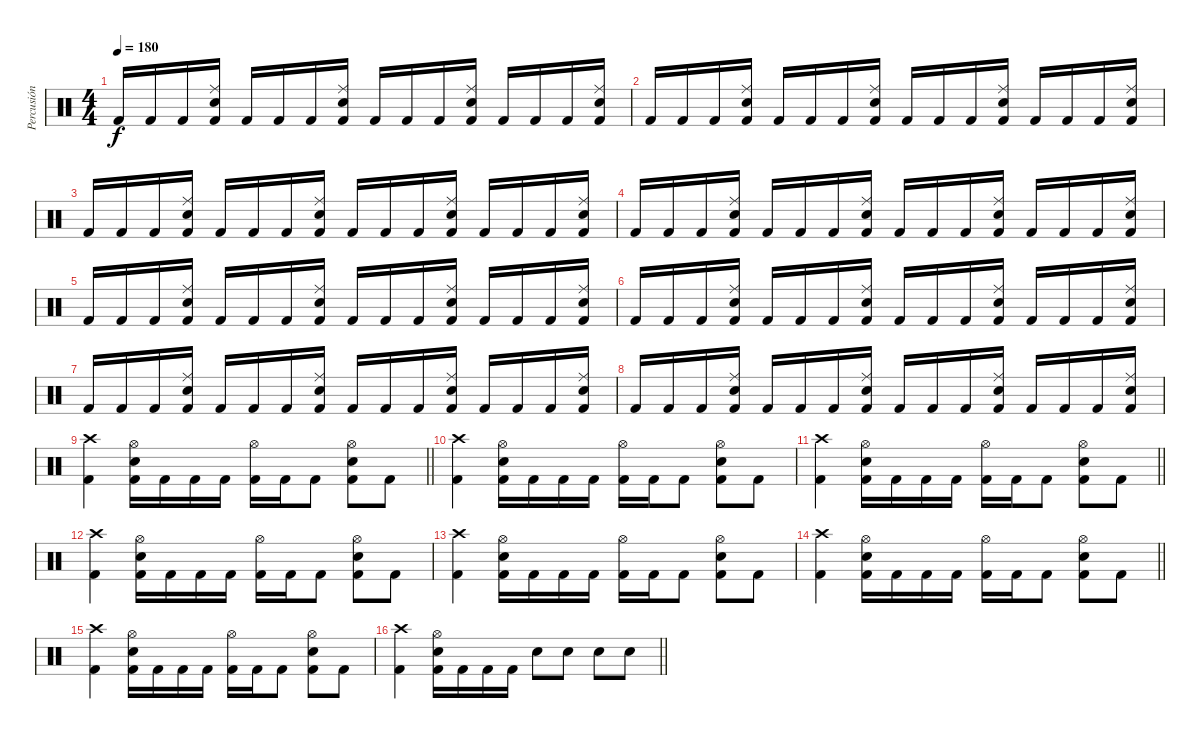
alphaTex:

\track ("Percusión" "Percusión") {instrument percussion}
\staff {score}
\articulation defaults
\ts (4 4)
\tempo 180
\clef neutral
\ks c "Kick (hit) 2".16{dy f} "Kick (hit) 2".16 "Kick (hit) 2".16
("Ride (middle)" "Snare (hit) 2" "Kick (hit) 2").16 "Kick (hit) 2".16 "Kick (hit) 2".16 "Kick (hit) 2".16 ("Ride (middle)" "Snare (hit) 2" "Kick (hit) 2").16 "Kick (hit) 2".16 "Kick (hit) 2".16 "Kick (hit) 2".16 ("Ride (middle)" "Snare (hit) 2" "Kick (hit) 2").16 "Kick (hit) 2".16 "Kick (hit) 2".16 "Kick (hit) 2".16 ("Ride (middle)" "Snare (hit) 2" "Kick (hit) 2").16 |
"Kick (hit) 2".16 "Kick (hit) 2".16 "Kick (hit) 2".16 ("Ride (middle)" "Snare (hit) 2" "Kick (hit) 2").16 "Kick (hit) 2".16 "Kick (hit) 2".16 "Kick (hit) 2".16 ("Ride (middle)" "Snare (hit) 2" "Kick (hit) 2").16 "Kick (hit) 2".16 "Kick (hit) 2".16 "Kick (hit) 2".16 ("Ride (middle)" "Snare (hit) 2" "Kick (hit) 2").16 "Kick (hit) 2".16 "Kick (hit) 2".16 "Kick (hit) 2".16 ("Ride (middle)" "Snare (hit) 2" "Kick (hit) 2").16 |
"Kick (hit) 2".16 "Kick (hit) 2".16 "Kick (hit) 2".16 ("Ride (middle)" "Snare (hit) 2" "Kick (hit) 2").16 "Kick (hit) 2".16 "Kick (hit) 2".16 "Kick (hit) 2".16 ("Ride (middle)" "Snare (hit) 2" "Kick (hit) 2").16 "Kick (hit) 2".16 "Kick (hit) 2".16 "Kick (hit) 2".16 ("Ride (middle)" "Snare (hit) 2" "Kick (hit) 2").16 "Kick (hit) 2".16 "Kick (hit) 2".16 "Kick (hit) 2".16 ("Ride (middle)" "Snare (hit) 2" "Kick (hit) 2").16 |
"Kick (hit) 2".16 "Kick (hit) 2".16 "Kick (hit) 2".16 ("Ride (middle)" "Snare (hit) 2" "Kick (hit) 2").16 "Kick (hit) 2".16 "Kick (hit) 2".16 "Kick (hit) 2".16 ("Ride (middle)" "Snare (hit) 2" "Kick (hit) 2").16 "Kick (hit) 2".16 "Kick (hit) 2".16 "Kick (hit) 2".16 ("Ride (middle)" "Snare (hit) 2" "Kick (hit) 2").16 "Kick (hit) 2".16 "Kick (hit) 2".16 "Kick (hit) 2".16 ("Ride (middle)" "Snare (hit) 2" "Kick (hit) 2").16 |
"Kick (hit) 2".16 "Kick (hit) 2".16 "Kick (hit) 2".16 ("Ride (middle)" "Snare (hit) 2" "Kick (hit) 2").16 "Kick (hit) 2".16 "Kick (hit) 2".16 "Kick (hit) 2".16 ("Ride (middle)" "Snare (hit) 2" "Kick (hit) 2").16 "Kick (hit) 2".16 "Kick (hit) 2".16 "Kick (hit) 2".16 ("Ride (middle)" "Snare (hit) 2" "Kick (hit) 2").16 "Kick (hit) 2".16 "Kick (hit) 2".16 "Kick (hit) 2".16 ("Ride (middle)" "Snare (hit) 2" "Kick (hit) 2").16 |
"Kick (hit) 2".16 "Kick (hit) 2".16 "Kick (hit) 2".16 ("Ride (middle)" "Snare (hit) 2" "Kick (hit) 2").16 "Kick (hit) 2".16 "Kick (hit) 2".16 "Kick (hit) 2".16 ("Ride (middle)" "Snare (hit) 2" "Kick (hit) 2").16 "Kick (hit) 2".16 "Kick (hit) 2".16 "Kick (hit) 2".16 ("Ride (middle)" "Snare (hit) 2" "Kick (hit) 2").16 "Kick (hit) 2".16 "Kick (hit) 2".16 "Kick (hit) 2".16 ("Ride (middle)" "Snare (hit) 2" "Kick (hit) 2").16 |
"Kick (hit) 2".16 "Kick (hit) 2".16 "Kick (hit) 2".16 ("Ride (middle)" "Snare (hit) 2" "Kick (hit) 2").16 "Kick (hit) 2".16 "Kick (hit) 2".16 "Kick (hit) 2".16 ("Ride (middle)" "Snare (hit) 2" "Kick (hit) 2").16 "Kick (hit) 2".16 "Kick (hit) 2".16 "Kick (hit) 2".16 ("Ride (middle)" "Snare (hit) 2" "Kick (hit) 2").16 "Kick (hit) 2".16 "Kick (hit) 2".16 "Kick (hit) 2".16 ("Ride (middle)" "Snare (hit) 2" "Kick (hit) 2").16 |
"Kick (hit) 2".16 "Kick (hit) 2".16 "Kick (hit) 2".16 ("Ride (middle)" "Snare (hit) 2" "Kick (hit) 2").16 "Kick (hit) 2".16 "Kick (hit) 2".16 "Kick (hit) 2".16 ("Ride (middle)" "Snare (hit) 2" "Kick (hit) 2").16 "Kick (hit) 2".16 "Kick (hit) 2".16 "Kick (hit) 2".16 ("Ride (middle)" "Snare (hit) 2" "Kick (hit) 2").16 "Kick (hit) 2".16 "Kick (hit) 2".16 "Kick (hit) 2".16 ("Ride (middle)" "Snare (hit) 2" "Kick (hit) 2").16 |
\barLineRight lightlight
("Crash high (hit)" "Kick (hit) 2").4 ("Hi-Hat (open)" "Snare (hit) 2" "Kick (hit) 2").16 "Kick (hit) 2".16 "Kick (hit) 2".16 "Kick (hit) 2".16 ("Hi-Hat (open)" "Kick (hit) 2").16 "Kick (hit) 2".16 "Kick (hit) 2".8 ("Hi-Hat (open)" "Snare (hit) 2" "Kick (hit) 2").8 "Kick (hit) 2".8 |
("Crash high (hit)" "Kick (hit) 2").4 ("Hi-Hat (open)" "Snare (hit) 2" "Kick (hit) 2").16 "Kick (hit) 2".16 "Kick (hit) 2".16 "Kick (hit) 2".16 ("Hi-Hat (open)" "Kick (hit) 2").16 "Kick (hit) 2".16 "Kick (hit) 2".8 ("Hi-Hat (open)" "Snare (hit) 2" "Kick (hit) 2").8 "Kick (hit) 2".8 |
\barLineRight lightlight
("Crash high (hit)" "Kick (hit) 2").4 ("Hi-Hat (open)" "Snare (hit) 2" "Kick (hit) 2").16 "Kick (hit) 2".16 "Kick (hit) 2".16 "Kick (hit) 2".16 ("Hi-Hat (open)" "Kick (hit) 2").16 "Kick (hit) 2".16 "Kick (hit) 2".8 ("Hi-Hat (open)" "Snare (hit) 2" "Kick (hit) 2").8 "Kick (hit) 2".8 |
("Crash high (hit)" "Kick (hit) 2").4 ("Hi-Hat (open)" "Snare (hit) 2" "Kick (hit) 2").16 "Kick (hit) 2".16 "Kick (hit) 2".16 "Kick (hit) 2".16 ("Hi-Hat (open)" "Kick (hit) 2").16 "Kick (hit) 2".16 "Kick (hit) 2".8 ("Hi-Hat (open)" "Snare (hit) 2" "Kick (hit) 2").8 "Kick (hit) 2".8 |
("Crash high (hit)" "Kick (hit) 2").4 ("Hi-Hat (open)" "Snare (hit) 2" "Kick (hit) 2").16 "Kick (hit) 2".16 "Kick (hit) 2".16 "Kick (hit) 2".16 ("Hi-Hat (open)" "Kick (hit) 2").16 "Kick (hit) 2".16 "Kick (hit) 2".8 ("Hi-Hat (open)" "Snare (hit) 2" "Kick (hit) 2").8 "Kick (hit) 2".8 |
\barLineRight lightlight
("Crash high (hit)" "Kick (hit) 2").4 ("Hi-Hat (open)" "Snare (hit) 2" "Kick (hit) 2").16 "Kick (hit) 2".16 "Kick (hit) 2".16 "Kick (hit) 2".16 ("Hi-Hat (open)" "Kick (hit) 2").16 "Kick (hit) 2".16 "Kick (hit) 2".8 ("Hi-Hat (open)" "Snare (hit) 2" "Kick (hit) 2").8 "Kick (hit) 2".8 |
("Crash high (hit)" "Kick (hit) 2").4 ("Hi-Hat (open)" "Snare (hit) 2" "Kick (hit) 2").16 "Kick (hit) 2".16 "Kick (hit) 2".16 "Kick (hit) 2".16 ("Hi-Hat (open)" "Kick (hit) 2").16 "Kick (hit) 2".16 "Kick (hit) 2".8 ("Hi-Hat (open)" "Snare (hit) 2" "Kick (hit) 2").8 "Kick (hit) 2".8 |
\barLineRight lightlight
("Crash high (hit)" "Kick (hit) 2").4 ("Hi-Hat (open)" "Snare (hit) 2" "Kick (hit) 2").16 "Kick (hit) 2".16 "Kick (hit) 2".16 "Kick (hit) 2".16 "Snare (hit) 2".8 "Snare (hit) 2".8 "Snare (hit) 2".8 "Snare (hit) 2".8
